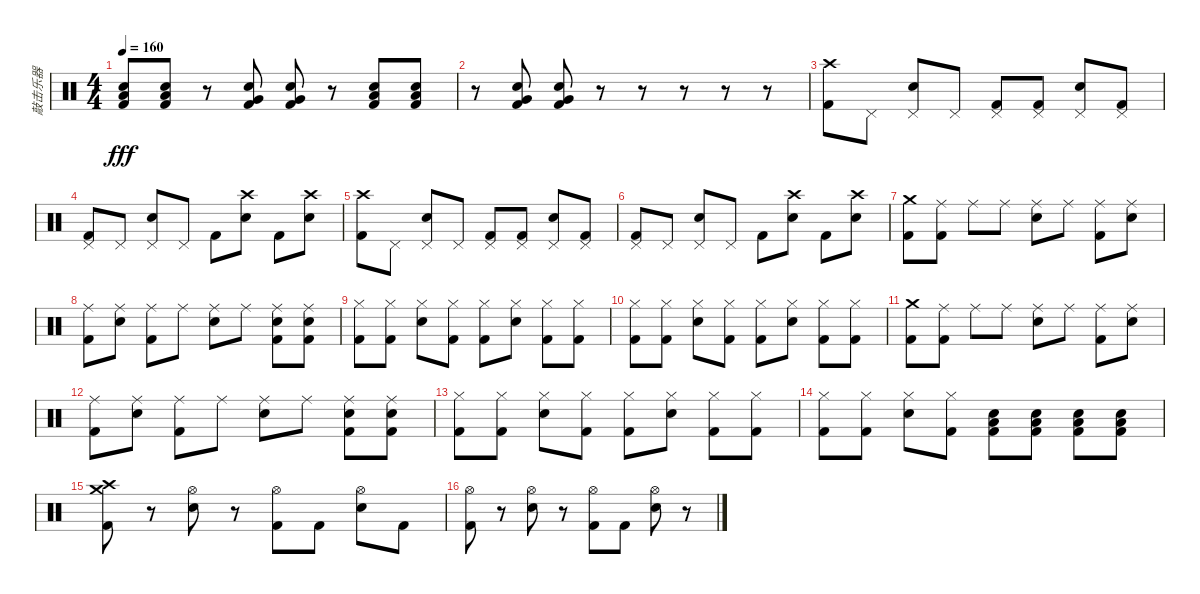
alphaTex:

\track ("敲击乐器" "敲击乐器") {instrument percussion}
\staff {score}
\articulation defaults
\ts (4 4)
\tempo 160
\clef neutral
\ks c
("Low Tom (hit)" "Electric Snare (hit)" "Kick (hit) 2").8{dy fff} ("Low Tom (hit)" "Electric Snare (hit)" "Kick (hit) 2").8 r.8 ("Very Low Tom (hit)" "Electric Snare (hit)" "Kick (hit) 2").8 ("Very Low Tom (hit)" "Electric Snare (hit)" "Kick (hit) 2").8 r.8 ("Low Tom (hit)" "Electric Snare (hit)" "Kick (hit) 2").8 ("Low Tom (hit)" "Electric Snare (hit)" "Kick (hit) 2").8 |
r.8 ("Very Low Tom (hit)" "Electric Snare (hit)" "Kick (hit) 2").8 ("Very Low Tom (hit)" "Electric Snare (hit)" "Kick (hit) 2").8 r.8 r.8 r.8 r.8 r.8 |
("Crash high (hit)" "Kick (hit) 2").8 "Pedal Hi-Hat (hit)".8 ("Pedal Hi-Hat (hit)" "Electric Snare (hit)").8 "Pedal Hi-Hat (hit)".8 ("Pedal Hi-Hat (hit)" "Kick (hit) 2").8 ("Pedal Hi-Hat (hit)" "Kick (hit) 2").8 ("Pedal Hi-Hat (hit)" "Electric Snare (hit)").8 ("Pedal Hi-Hat (hit)" "Kick (hit) 2").8 |
("Pedal Hi-Hat (hit)" "Kick (hit) 2").8 "Pedal Hi-Hat (hit)".8 ("Pedal Hi-Hat (hit)" "Electric Snare (hit)").8 "Pedal Hi-Hat (hit)".8 "Kick (hit) 2".8 ("Crash high (hit)" "Electric Snare (hit)").8 "Kick (hit) 2".8 ("Crash high (hit)" "Electric Snare (hit)").8 |
("Crash high (hit)" "Kick (hit) 2").8 "Pedal Hi-Hat (hit)".8 ("Pedal Hi-Hat (hit)" "Electric Snare (hit)").8 "Pedal Hi-Hat (hit)".8 ("Pedal Hi-Hat (hit)" "Kick (hit) 2").8 ("Pedal Hi-Hat (hit)" "Kick (hit) 2").8 ("Pedal Hi-Hat (hit)" "Electric Snare (hit)").8 ("Pedal Hi-Hat (hit)" "Kick (hit) 2").8 |
("Pedal Hi-Hat (hit)" "Kick (hit) 2").8 "Pedal Hi-Hat (hit)".8 ("Pedal Hi-Hat (hit)" "Electric Snare (hit)").8 "Pedal Hi-Hat (hit)".8 "Kick (hit) 2".8 ("Crash high (hit)" "Electric Snare (hit)").8 "Kick (hit) 2".8 ("Crash high (hit)" "Electric Snare (hit)").8 |
("Crash medium (hit)" "Kick (hit) 2").8 ("Ride (middle)" "Kick (hit) 2").8 "Ride (middle)".8 "Ride (middle)".8 ("Ride (middle)" "Electric Snare (hit)").8 "Ride (middle)".8 ("Ride (middle)" "Kick (hit) 2").8 ("Ride (middle)" "Electric Snare (hit)").8 |
("Ride (middle)" "Kick (hit) 2").8 ("Ride (middle)" "Electric Snare (hit)").8 ("Ride (middle)" "Kick (hit) 2").8 "Ride (middle)".8 ("Ride (middle)" "Electric Snare (hit)").8 "Ride (middle)".8 ("Ride (middle)" "Electric Snare (hit)" "Kick (hit) 2").8 ("Ride (middle)" "Electric Snare (hit)" "Kick (hit) 2").8 |
("Hi-Hat (closed)" "Kick (hit) 2").8 ("Hi-Hat (closed)" "Kick (hit) 2").8 ("Hi-Hat (closed)" "Electric Snare (hit)").8 ("Hi-Hat (closed)" "Kick (hit) 2").8 ("Hi-Hat (closed)" "Kick (hit) 2").8 ("Hi-Hat (closed)" "Electric Snare (hit)").8 ("Hi-Hat (closed)" "Kick (hit) 2").8 ("Hi-Hat (closed)" "Kick (hit) 2").8 |
("Hi-Hat (closed)" "Kick (hit) 2").8 ("Hi-Hat (closed)" "Kick (hit) 2").8 ("Hi-Hat (closed)" "Electric Snare (hit)").8 ("Hi-Hat (closed)" "Kick (hit) 2").8 ("Hi-Hat (closed)" "Kick (hit) 2").8 ("Hi-Hat (closed)" "Electric Snare (hit)").8 ("Hi-Hat (closed)" "Kick (hit) 2").8 ("Hi-Hat (closed)" "Kick (hit) 2").8 |
("Crash medium (hit)" "Kick (hit) 2").8 ("Ride (middle)" "Kick (hit) 2").8 "Ride (middle)".8 "Ride (middle)".8 ("Ride (middle)" "Electric Snare (hit)").8 "Ride (middle)".8 ("Ride (middle)" "Kick (hit) 2").8 ("Ride (middle)" "Electric Snare (hit)").8 |
("Ride (middle)" "Kick (hit) 2").8 ("Ride (middle)" "Electric Snare (hit)").8 ("Ride (middle)" "Kick (hit) 2").8 "Ride (middle)".8 ("Ride (middle)" "Electric Snare (hit)").8 "Ride (middle)".8 ("Ride (middle)" "Electric Snare (hit)" "Kick (hit) 2").8 ("Ride (middle)" "Electric Snare (hit)" "Kick (hit) 2").8 |
("Hi-Hat (closed)" "Kick (hit) 2").8 ("Hi-Hat (closed)" "Kick (hit) 2").8 ("Hi-Hat (closed)" "Electric Snare (hit)").8 ("Hi-Hat (closed)" "Kick (hit) 2").8 ("Hi-Hat (closed)" "Kick (hit) 2").8 ("Hi-Hat (closed)" "Electric Snare (hit)").8 ("Hi-Hat (closed)" "Kick (hit) 2").8 ("Hi-Hat (closed)" "Kick (hit) 2").8 |
("Hi-Hat (closed)" "Kick (hit) 2").8 ("Hi-Hat (closed)" "Kick (hit) 2").8 ("Hi-Hat (closed)" "Electric Snare (hit)").8 ("Hi-Hat (closed)" "Kick (hit) 2").8 ("Low Floor Tom (hit)" "Electric Snare (hit)" "Kick (hit) 2").8 ("Low Floor Tom (hit)" "Electric Snare (hit)" "Kick (hit) 2").8 ("Low Floor Tom (hit)" "Electric Snare (hit)" "Kick (hit) 2").8 ("Low Floor Tom (hit)" "Electric Snare (hit)" "Kick (hit) 2").8 |
("Crash high (hit)" "Crash medium (hit)" "Kick (hit) 2").8 r.8 ("Hi-Hat (open)" "Electric Snare (hit)").8 r.8 ("Hi-Hat (open)" "Kick (hit) 2").8 "Kick (hit) 2".8 ("Hi-Hat (open)" "Electric Snare (hit)").8 "Kick (hit) 2".8 |
("Hi-Hat (open)" "Kick (hit) 2").8 r.8 ("Hi-Hat (open)" "Electric Snare (hit)").8 r.8 ("Hi-Hat (open)" "Kick (hit) 2").8 "Kick (hit) 2".8 ("Hi-Hat (open)" "Electric Snare (hit)").8 r.8
